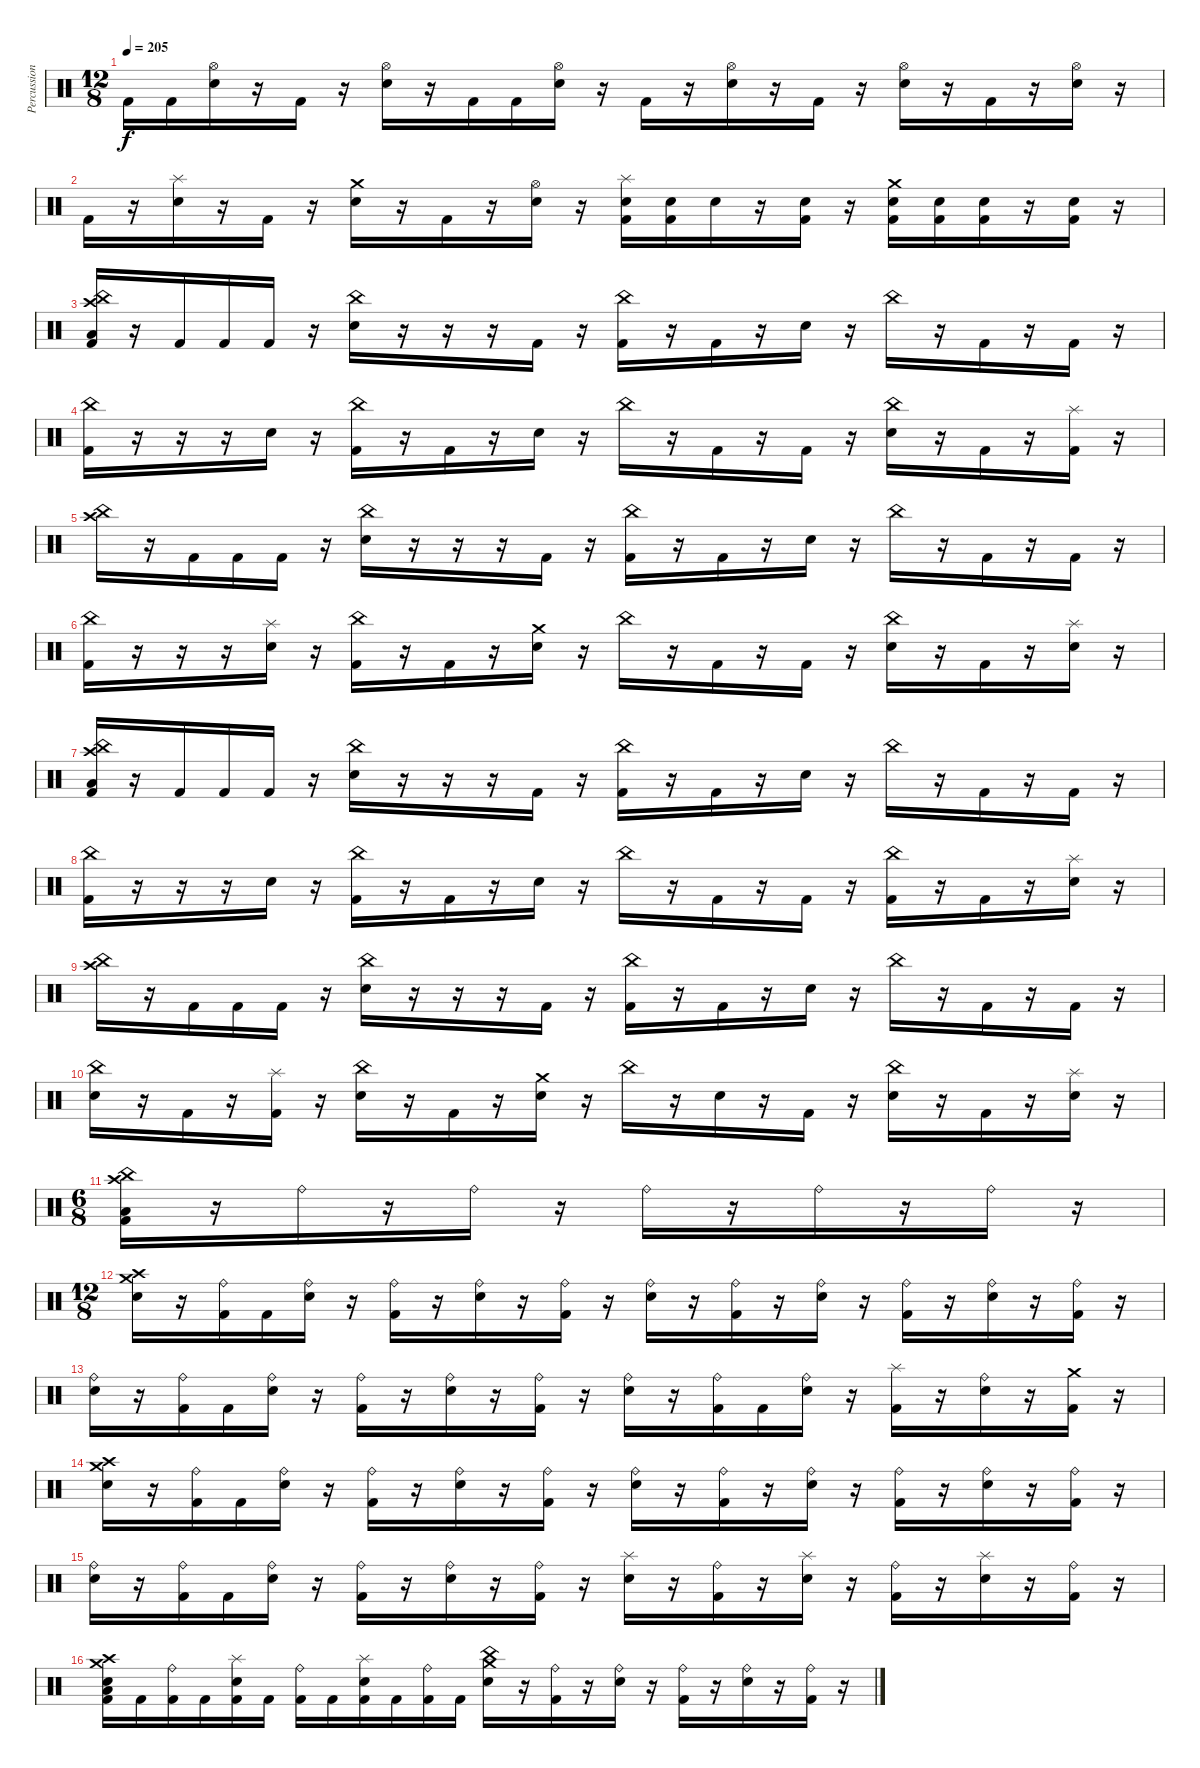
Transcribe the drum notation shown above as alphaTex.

\track ("Percussion" "Percussion") {instrument percussion}
\staff {score}
\articulation defaults
\ts (12 8)
\tempo 205
\clef neutral
\ks c "Kick (hit) 2".16{dy f} "Kick (hit) 2".16
("Hi-Hat (open)" "Electric Snare (hit)").16 r.16 "Kick (hit) 2".16 r.16 ("Hi-Hat (open)" "Electric Snare (hit)").16 r.16 "Kick (hit) 2".16 "Kick (hit) 2".16 ("Hi-Hat (open)" "Electric Snare (hit)").16 r.16 "Kick (hit) 2".16 r.16 ("Hi-Hat (open)" "Electric Snare (hit)").16 r.16 "Kick (hit) 2".16 r.16 ("Hi-Hat (open)" "Electric Snare (hit)").16 r.16 "Kick (hit) 2".16 r.16 ("Hi-Hat (open)" "Electric Snare (hit)").16 r.16 |
"Kick (hit) 2".16 r.16 ("Splash (hit)" "Electric Snare (hit)").16 r.16 "Kick (hit) 2".16 r.16 ("Crash medium (hit)" "Electric Snare (hit)").16 r.16 "Kick (hit) 2".16 r.16 ("Hi-Hat (open)" "Electric Snare (hit)").16 r.16 ("Splash (hit)" "Electric Snare (hit)" "Kick (hit) 2").16 ("Electric Snare (hit)" "Kick (hit) 2").16 "Electric Snare (hit)".16 r.16 ("Electric Snare (hit)" "Kick (hit) 2").16 r.16 ("Crash medium (hit)" "Electric Snare (hit)" "Kick (hit) 2").16 ("Electric Snare (hit)" "Kick (hit) 2").16 ("Electric Snare (hit)" "Kick (hit) 2").16 r.16 ("Electric Snare (hit)" "Kick (hit) 2").16 r.16 |
("Crash high (hit)" "China (hit)" "Low Floor Tom (hit)" "Kick (hit) 2").16 r.16 "Kick (hit) 2".16 "Kick (hit) 2".16 "Kick (hit) 2".16 r.16 ("China (hit)" "Electric Snare (hit)").16 r.16 r.16 r.16 "Kick (hit) 2".16 r.16 ("China (hit)" "Kick (hit) 2").16 r.16 "Kick (hit) 2".16 r.16 "Electric Snare (hit)".16 r.16 "China (hit)".16 r.16 "Kick (hit) 2".16 r.16 "Kick (hit) 2".16 r.16 |
("China (hit)" "Kick (hit) 2").16 r.16 r.16 r.16 "Electric Snare (hit)".16 r.16 ("China (hit)" "Kick (hit) 2").16 r.16 "Kick (hit) 2".16 r.16 "Electric Snare (hit)".16 r.16 "China (hit)".16 r.16 "Kick (hit) 2".16 r.16 "Kick (hit) 2".16 r.16 ("China (hit)" "Electric Snare (hit)").16 r.16 "Kick (hit) 2".16 r.16 ("Splash (hit)" "Kick (hit) 2").16 r.16 |
("China (hit)" "Crash high (hit)").16 r.16 "Kick (hit) 2".16 "Kick (hit) 2".16 "Kick (hit) 2".16 r.16 ("China (hit)" "Electric Snare (hit)").16 r.16 r.16 r.16 "Kick (hit) 2".16 r.16 ("China (hit)" "Kick (hit) 2").16 r.16 "Kick (hit) 2".16 r.16 "Electric Snare (hit)".16 r.16 "China (hit)".16 r.16 "Kick (hit) 2".16 r.16 "Kick (hit) 2".16 r.16 |
("China (hit)" "Kick (hit) 2").16 r.16 r.16 r.16 ("Splash (hit)" "Electric Snare (hit)").16 r.16 ("China (hit)" "Kick (hit) 2").16 r.16 "Kick (hit) 2".16 r.16 ("Crash medium (hit)" "Electric Snare (hit)").16 r.16 "China (hit)".16 r.16 "Kick (hit) 2".16 r.16 "Kick (hit) 2".16 r.16 ("China (hit)" "Electric Snare (hit)").16 r.16 "Kick (hit) 2".16 r.16 ("Splash (hit)" "Electric Snare (hit)").16 r.16 |
("Crash high (hit)" "China (hit)" "Low Floor Tom (hit)" "Kick (hit) 2").16 r.16 "Kick (hit) 2".16 "Kick (hit) 2".16 "Kick (hit) 2".16 r.16 ("China (hit)" "Electric Snare (hit)").16 r.16 r.16 r.16 "Kick (hit) 2".16 r.16 ("China (hit)" "Kick (hit) 2").16 r.16 "Kick (hit) 2".16 r.16 "Electric Snare (hit)".16 r.16 "China (hit)".16 r.16 "Kick (hit) 2".16 r.16 "Kick (hit) 2".16 r.16 |
("China (hit)" "Kick (hit) 2").16 r.16 r.16 r.16 "Electric Snare (hit)".16 r.16 ("China (hit)" "Kick (hit) 2").16 r.16 "Kick (hit) 2".16 r.16 "Electric Snare (hit)".16 r.16 "China (hit)".16 r.16 "Kick (hit) 2".16 r.16 "Kick (hit) 2".16 r.16 ("China (hit)" "Kick (hit) 2").16 r.16 "Kick (hit) 2".16 r.16 ("Splash (hit)" "Electric Snare (hit)").16 r.16 |
("China (hit)" "Crash high (hit)").16 r.16 "Kick (hit) 2".16 "Kick (hit) 2".16 "Kick (hit) 2".16 r.16 ("China (hit)" "Electric Snare (hit)").16 r.16 r.16 r.16 "Kick (hit) 2".16 r.16 ("China (hit)" "Kick (hit) 2").16 r.16 "Kick (hit) 2".16 r.16 "Electric Snare (hit)".16 r.16 "China (hit)".16 r.16 "Kick (hit) 2".16 r.16 "Kick (hit) 2".16 r.16 |
("China (hit)" "Electric Snare (hit)").16 r.16 "Kick (hit) 2".16 r.16 ("Splash (hit)" "Kick (hit) 2").16 r.16 ("China (hit)" "Electric Snare (hit)").16 r.16 "Kick (hit) 2".16 r.16 ("Crash medium (hit)" "Electric Snare (hit)").16 r.16 "China (hit)".16 r.16 "Electric Snare (hit)".16 r.16 "Kick (hit) 2".16 r.16 ("China (hit)" "Electric Snare (hit)").16 r.16 "Kick (hit) 2".16 r.16 ("Splash (hit)" "Electric Snare (hit)").16 r.16 |
\ts (6 8)
("China (hit)" "Crash high (hit)" "Low Floor Tom (hit)" "Kick (hit) 2").16 r.16 "Ride (bell)".16 r.16 "Ride (bell)".16 r.16 "Ride (bell)".16 r.16 "Ride (bell)".16 r.16 "Ride (bell)".16 r.16 |
\ts (12 8)
("Crash high (hit)" "Crash medium (hit)" "Electric Snare (hit)").16 r.16 ("Ride (bell)" "Kick (hit) 2").16 "Kick (hit) 2".16 ("Ride (bell)" "Electric Snare (hit)").16 r.16 ("Ride (bell)" "Kick (hit) 2").16 r.16 ("Ride (bell)" "Electric Snare (hit)").16 r.16 ("Ride (bell)" "Kick (hit) 2").16 r.16 ("Ride (bell)" "Electric Snare (hit)").16 r.16 ("Ride (bell)" "Kick (hit) 2").16 r.16 ("Ride (bell)" "Electric Snare (hit)").16 r.16 ("Ride (bell)" "Kick (hit) 2").16 r.16 ("Ride (bell)" "Electric Snare (hit)").16 r.16 ("Ride (bell)" "Kick (hit) 2").16 r.16 |
("Ride (bell)" "Electric Snare (hit)").16 r.16 ("Ride (bell)" "Kick (hit) 2").16 "Kick (hit) 2".16 ("Ride (bell)" "Electric Snare (hit)").16 r.16 ("Ride (bell)" "Kick (hit) 2").16 r.16 ("Ride (bell)" "Electric Snare (hit)").16 r.16 ("Ride (bell)" "Kick (hit) 2").16 r.16 ("Ride (bell)" "Electric Snare (hit)").16 r.16 ("Ride (bell)" "Kick (hit) 2").16 "Kick (hit) 2".16 ("Ride (bell)" "Electric Snare (hit)").16 r.16 ("Splash (hit)" "Kick (hit) 2").16 r.16 ("Ride (bell)" "Electric Snare (hit)").16 r.16 ("Crash medium (hit)" "Kick (hit) 2").16 r.16 |
("Crash high (hit)" "Crash medium (hit)" "Electric Snare (hit)").16 r.16 ("Ride (bell)" "Kick (hit) 2").16 "Kick (hit) 2".16 ("Ride (bell)" "Electric Snare (hit)").16 r.16 ("Ride (bell)" "Kick (hit) 2").16 r.16 ("Ride (bell)" "Electric Snare (hit)").16 r.16 ("Ride (bell)" "Kick (hit) 2").16 r.16 ("Ride (bell)" "Electric Snare (hit)").16 r.16 ("Ride (bell)" "Kick (hit) 2").16 r.16 ("Ride (bell)" "Electric Snare (hit)").16 r.16 ("Ride (bell)" "Kick (hit) 2").16 r.16 ("Ride (bell)" "Electric Snare (hit)").16 r.16 ("Ride (bell)" "Kick (hit) 2").16 r.16 |
("Ride (bell)" "Electric Snare (hit)").16 r.16 ("Ride (bell)" "Kick (hit) 2").16 "Kick (hit) 2".16 ("Ride (bell)" "Electric Snare (hit)").16 r.16 ("Ride (bell)" "Kick (hit) 2").16 r.16 ("Ride (bell)" "Electric Snare (hit)").16 r.16 ("Ride (bell)" "Kick (hit) 2").16 r.16 ("Splash (hit)" "Electric Snare (hit)").16 r.16 ("Ride (bell)" "Kick (hit) 2").16 r.16 ("Splash (hit)" "Electric Snare (hit)").16 r.16 ("Ride (bell)" "Kick (hit) 2").16 r.16 ("Splash (hit)" "Electric Snare (hit)").16 r.16 ("Ride (bell)" "Kick (hit) 2").16 r.16 |
("Crash high (hit)" "Crash medium (hit)" "Electric Snare (hit)" "Low Floor Tom (hit)" "Kick (hit) 2").16 "Kick (hit) 2".16 ("Ride (bell)" "Kick (hit) 2").16 "Kick (hit) 2".16 ("Splash (hit)" "Electric Snare (hit)" "Kick (hit) 2").16 "Kick (hit) 2".16 ("Ride (bell)" "Kick (hit) 2").16 "Kick (hit) 2".16 ("Splash (hit)" "Electric Snare (hit)" "Kick (hit) 2").16 "Kick (hit) 2".16 ("Ride (bell)" "Kick (hit) 2").16 "Kick (hit) 2".16 ("China (hit)" "Crash medium (hit)" "Electric Snare (hit)").16 r.16 ("Ride (bell)" "Kick (hit) 2").16 r.16 ("Ride (bell)" "Electric Snare (hit)").16 r.16 ("Ride (bell)" "Kick (hit) 2").16 r.16 ("Ride (bell)" "Electric Snare (hit)").16 r.16 ("Ride (bell)" "Kick (hit) 2").16 r.16
